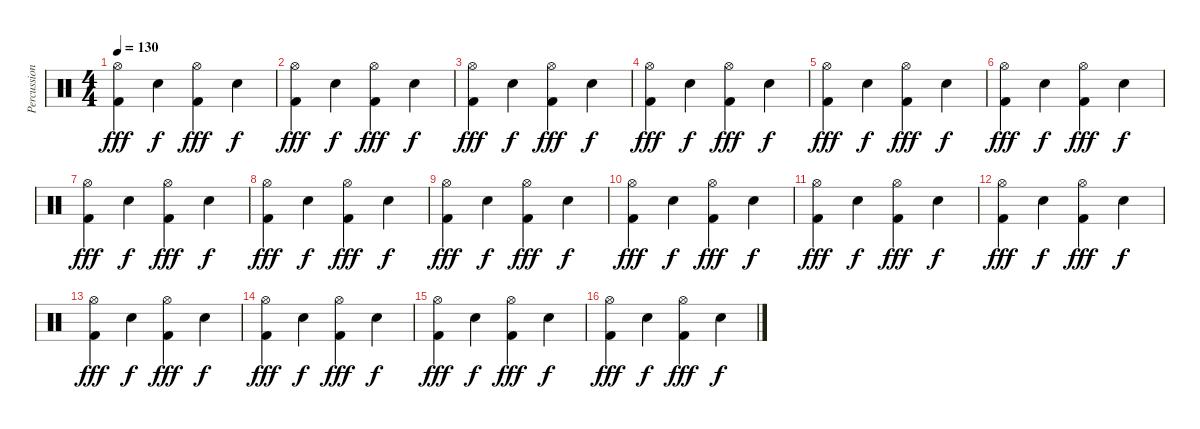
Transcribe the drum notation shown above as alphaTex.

\track ("Percussions" "Percussion") {instrument percussion}
\staff {score}
\articulation defaults
\ts (4 4)
\tempo 130
\clef neutral
\ks c
("Hi-Hat (open)" "Kick (hit) 2").4{dy fff} "Electric Snare (hit)".4{dy f} ("Hi-Hat (open)" "Kick (hit) 2").4{dy fff} "Electric Snare (hit)".4{dy f} |
("Hi-Hat (open)" "Kick (hit) 2").4{dy fff} "Electric Snare (hit)".4{dy f} ("Hi-Hat (open)" "Kick (hit) 2").4{dy fff} "Electric Snare (hit)".4{dy f} |
("Hi-Hat (open)" "Kick (hit) 2").4{dy fff} "Electric Snare (hit)".4{dy f} ("Hi-Hat (open)" "Kick (hit) 2").4{dy fff} "Electric Snare (hit)".4{dy f} |
("Hi-Hat (open)" "Kick (hit) 2").4{dy fff} "Electric Snare (hit)".4{dy f} ("Hi-Hat (open)" "Kick (hit) 2").4{dy fff} "Electric Snare (hit)".4{dy f} |
("Hi-Hat (open)" "Kick (hit) 2").4{dy fff} "Electric Snare (hit)".4{dy f} ("Hi-Hat (open)" "Kick (hit) 2").4{dy fff} "Electric Snare (hit)".4{dy f} |
("Hi-Hat (open)" "Kick (hit) 2").4{dy fff} "Electric Snare (hit)".4{dy f} ("Hi-Hat (open)" "Kick (hit) 2").4{dy fff} "Electric Snare (hit)".4{dy f} |
("Hi-Hat (open)" "Kick (hit) 2").4{dy fff} "Electric Snare (hit)".4{dy f} ("Hi-Hat (open)" "Kick (hit) 2").4{dy fff} "Electric Snare (hit)".4{dy f} |
("Hi-Hat (open)" "Kick (hit) 2").4{dy fff} "Electric Snare (hit)".4{dy f} ("Hi-Hat (open)" "Kick (hit) 2").4{dy fff} "Electric Snare (hit)".4{dy f} |
("Hi-Hat (open)" "Kick (hit) 2").4{dy fff} "Electric Snare (hit)".4{dy f} ("Hi-Hat (open)" "Kick (hit) 2").4{dy fff} "Electric Snare (hit)".4{dy f} |
("Hi-Hat (open)" "Kick (hit) 2").4{dy fff} "Electric Snare (hit)".4{dy f} ("Hi-Hat (open)" "Kick (hit) 2").4{dy fff} "Electric Snare (hit)".4{dy f} |
("Hi-Hat (open)" "Kick (hit) 2").4{dy fff} "Electric Snare (hit)".4{dy f} ("Hi-Hat (open)" "Kick (hit) 2").4{dy fff} "Electric Snare (hit)".4{dy f} |
("Hi-Hat (open)" "Kick (hit) 2").4{dy fff} "Electric Snare (hit)".4{dy f} ("Hi-Hat (open)" "Kick (hit) 2").4{dy fff} "Electric Snare (hit)".4{dy f} |
("Hi-Hat (open)" "Kick (hit) 2").4{dy fff} "Electric Snare (hit)".4{dy f} ("Hi-Hat (open)" "Kick (hit) 2").4{dy fff} "Electric Snare (hit)".4{dy f} |
("Hi-Hat (open)" "Kick (hit) 2").4{dy fff} "Electric Snare (hit)".4{dy f} ("Hi-Hat (open)" "Kick (hit) 2").4{dy fff} "Electric Snare (hit)".4{dy f} |
("Hi-Hat (open)" "Kick (hit) 2").4{dy fff} "Electric Snare (hit)".4{dy f} ("Hi-Hat (open)" "Kick (hit) 2").4{dy fff} "Electric Snare (hit)".4{dy f} |
("Hi-Hat (open)" "Kick (hit) 2").4{dy fff} "Electric Snare (hit)".4{dy f} ("Hi-Hat (open)" "Kick (hit) 2").4{dy fff} "Electric Snare (hit)".4{dy f}
